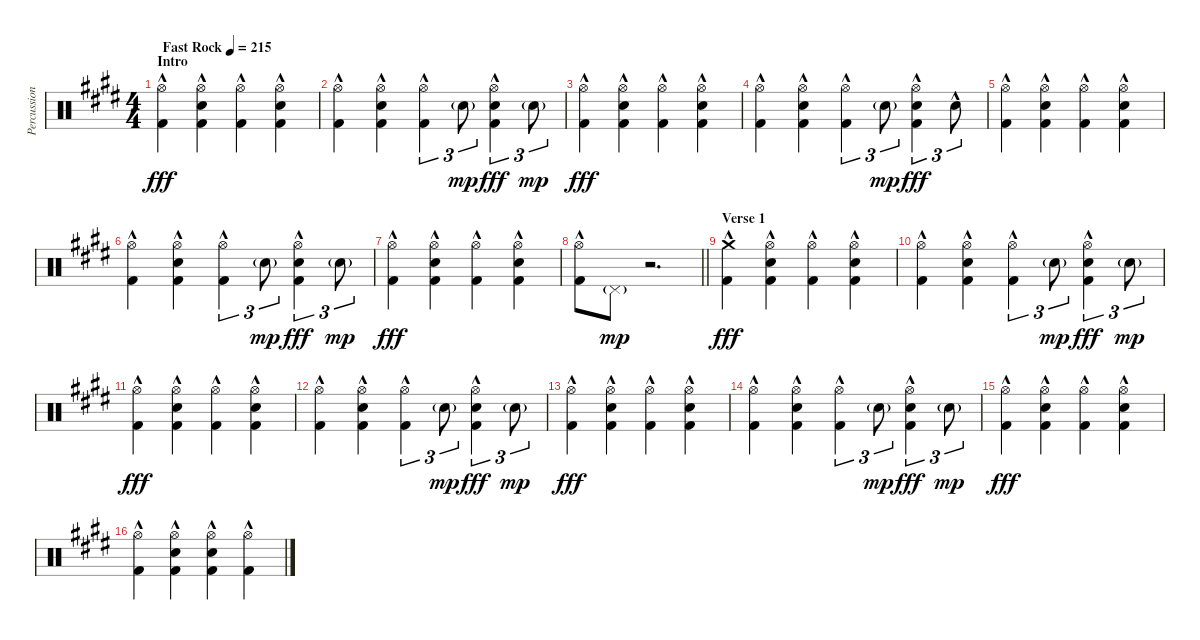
\track ("Percussion" "Percussion") {instrument percussion}
\staff {score}
\articulation defaults
\ts (4 4)
\section ("" "Intro")
\tempo (215 "Fast Rock")
\clef neutral
\ks e
("Hi-Hat (open)" "Kick (hit) 2"{hac}).4{dy fff} ("Hi-Hat (open)" "Electric Snare (hit)"{hac} "Kick (hit) 2"{hac}).4 ("Hi-Hat (open)" "Kick (hit) 2"{hac}).4 ("Hi-Hat (open)" "Electric Snare (hit)"{hac} "Kick (hit) 2"{hac}).4 |
("Hi-Hat (open)" "Kick (hit) 2"{hac}).4 ("Hi-Hat (open)" "Electric Snare (hit)"{hac} "Kick (hit) 2"{hac}).4 ("Hi-Hat (open)" "Kick (hit) 2"{hac}).4{tu (3 2)} "Electric Snare (hit)"{g}.8{tu (3 2) dy mp} ("Hi-Hat (open)" "Electric Snare (hit)"{hac} "Kick (hit) 2"{hac}).4{tu (3 2) dy fff} "Electric Snare (hit)"{g}.8{tu (3 2) dy mp} |
("Hi-Hat (open)" "Kick (hit) 2"{hac}).4{dy fff} ("Hi-Hat (open)" "Electric Snare (hit)"{hac} "Kick (hit) 2"{hac}).4 ("Hi-Hat (open)" "Kick (hit) 2"{hac}).4 ("Hi-Hat (open)" "Electric Snare (hit)"{hac} "Kick (hit) 2"{hac}).4 |
("Hi-Hat (open)" "Kick (hit) 2"{hac}).4 ("Hi-Hat (open)" "Electric Snare (hit)"{hac} "Kick (hit) 2"{hac}).4 ("Hi-Hat (open)" "Kick (hit) 2"{hac}).4{tu (3 2)} "Electric Snare (hit)"{g}.8{tu (3 2) dy mp} ("Hi-Hat (open)" "Electric Snare (hit)"{hac} "Kick (hit) 2"{hac}).4{tu (3 2) dy fff} "Electric Snare (hit)"{hac}.8{tu (3 2)} |
("Hi-Hat (open)" "Kick (hit) 2"{hac}).4 ("Hi-Hat (open)" "Electric Snare (hit)"{hac} "Kick (hit) 2"{hac}).4 ("Hi-Hat (open)" "Kick (hit) 2"{hac}).4 ("Hi-Hat (open)" "Electric Snare (hit)"{hac} "Kick (hit) 2"{hac}).4 |
("Hi-Hat (open)" "Kick (hit) 2"{hac}).4 ("Hi-Hat (open)" "Electric Snare (hit)"{hac} "Kick (hit) 2"{hac}).4 ("Hi-Hat (open)" "Kick (hit) 2"{hac}).4{tu (3 2)} "Electric Snare (hit)"{g}.8{tu (3 2) dy mp} ("Hi-Hat (open)" "Electric Snare (hit)"{hac} "Kick (hit) 2"{hac}).4{tu (3 2) dy fff} "Electric Snare (hit)"{g}.8{tu (3 2) dy mp} |
("Hi-Hat (open)" "Kick (hit) 2"{hac}).4{dy fff} ("Hi-Hat (open)" "Electric Snare (hit)"{hac} "Kick (hit) 2"{hac}).4 ("Hi-Hat (open)" "Kick (hit) 2"{hac}).4 ("Hi-Hat (open)" "Electric Snare (hit)"{hac} "Kick (hit) 2"{hac}).4 |
\barLineRight lightlight
("Hi-Hat (open)" "Kick (hit) 2"{hac}).8 "Pedal Hi-Hat (hit)"{g}.8{dy mp} r.2{d} |
\section ("" "Verse 1")
("Crash medium (hit)" "Kick (hit) 2"{hac}).4{dy fff} ("Hi-Hat (open)" "Electric Snare (hit)"{hac} "Kick (hit) 2"{hac}).4 ("Hi-Hat (open)" "Kick (hit) 2"{hac}).4 ("Hi-Hat (open)" "Electric Snare (hit)"{hac} "Kick (hit) 2"{hac}).4 |
("Hi-Hat (open)" "Kick (hit) 2"{hac}).4 ("Hi-Hat (open)" "Electric Snare (hit)"{hac} "Kick (hit) 2"{hac}).4 ("Hi-Hat (open)" "Kick (hit) 2"{hac}).4{tu (3 2)} "Electric Snare (hit)"{g}.8{tu (3 2) dy mp} ("Hi-Hat (open)" "Electric Snare (hit)"{hac} "Kick (hit) 2"{hac}).4{tu (3 2) dy fff} "Electric Snare (hit)"{g}.8{tu (3 2) dy mp} |
("Hi-Hat (open)" "Kick (hit) 2"{hac}).4{dy fff} ("Hi-Hat (open)" "Electric Snare (hit)"{hac} "Kick (hit) 2"{hac}).4 ("Hi-Hat (open)" "Kick (hit) 2"{hac}).4 ("Hi-Hat (open)" "Electric Snare (hit)"{hac} "Kick (hit) 2"{hac}).4 |
("Hi-Hat (open)" "Kick (hit) 2"{hac}).4 ("Hi-Hat (open)" "Electric Snare (hit)"{hac} "Kick (hit) 2"{hac}).4 ("Hi-Hat (open)" "Kick (hit) 2"{hac}).4{tu (3 2)} "Electric Snare (hit)"{g}.8{tu (3 2) dy mp} ("Hi-Hat (open)" "Electric Snare (hit)"{hac} "Kick (hit) 2"{hac}).4{tu (3 2) dy fff} "Electric Snare (hit)"{g}.8{tu (3 2) dy mp} |
("Hi-Hat (open)" "Kick (hit) 2"{hac}).4{dy fff} ("Hi-Hat (open)" "Electric Snare (hit)"{hac} "Kick (hit) 2"{hac}).4 ("Hi-Hat (open)" "Kick (hit) 2"{hac}).4 ("Hi-Hat (open)" "Electric Snare (hit)"{hac} "Kick (hit) 2"{hac}).4 |
("Hi-Hat (open)" "Kick (hit) 2"{hac}).4 ("Hi-Hat (open)" "Electric Snare (hit)"{hac} "Kick (hit) 2"{hac}).4 ("Hi-Hat (open)" "Kick (hit) 2"{hac}).4{tu (3 2)} "Electric Snare (hit)"{g}.8{tu (3 2) dy mp} ("Hi-Hat (open)" "Electric Snare (hit)"{hac} "Kick (hit) 2"{hac}).4{tu (3 2) dy fff} "Electric Snare (hit)"{g}.8{tu (3 2) dy mp} |
("Hi-Hat (open)" "Kick (hit) 2"{hac}).4{dy fff} ("Hi-Hat (open)" "Electric Snare (hit)"{hac} "Kick (hit) 2"{hac}).4 ("Hi-Hat (open)" "Kick (hit) 2"{hac}).4 ("Hi-Hat (open)" "Electric Snare (hit)"{hac} "Kick (hit) 2"{hac}).4 |
("Hi-Hat (open)" "Kick (hit) 2"{hac}).4 ("Hi-Hat (open)" "Electric Snare (hit)"{hac} "Kick (hit) 2"{hac}).4 ("Hi-Hat (open)" "Electric Snare (hit)"{hac} "Kick (hit) 2"{hac}).4 ("Hi-Hat (open)" "Kick (hit) 2"{hac}).4
